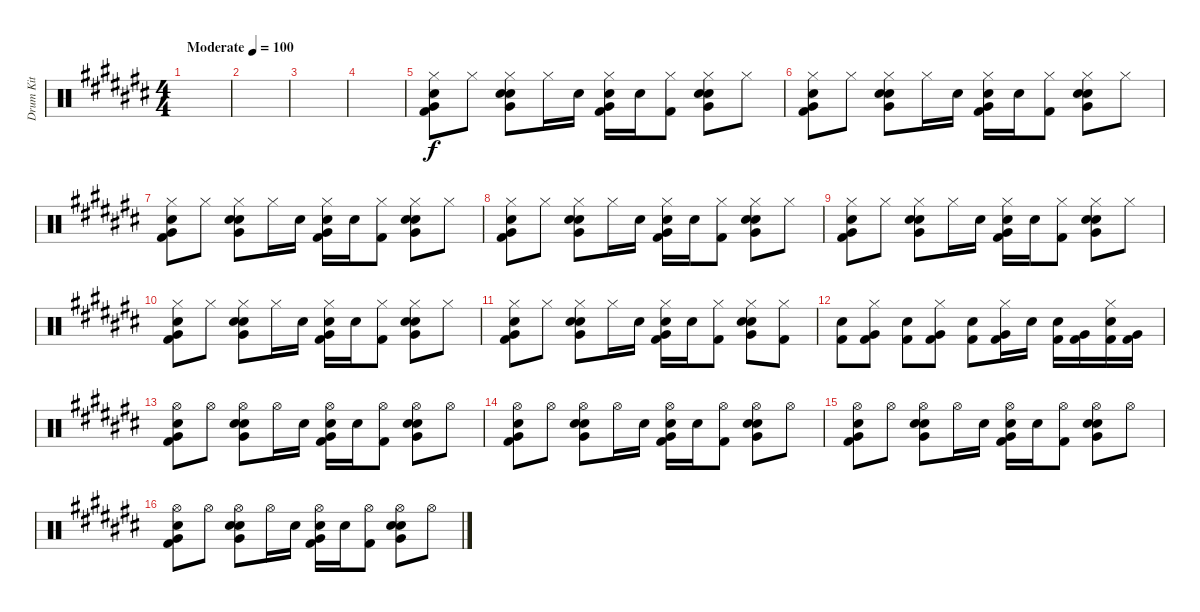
\track ("Drum Kit" "Drum Kit") {instrument percussion}
\staff {score}
\articulation defaults
\ts (4 4)
\tempo (100 "Moderate")
\clef neutral
\ks c#
|
|
|
|
("Hi-Hat (closed)" "Electric Snare (hit)" "Very Low Tom (hit)" "Kick (hit) 2").8 "Hi-Hat (closed)".8 ("Hi-Hat (closed)" "Electric Snare (hit)" "Very Low Tom (hit)" "Snare (hit) 2").8 "Hi-Hat (closed)".16 "Snare (hit) 2".16 ("Hi-Hat (closed)" "Electric Snare (hit)" "Very Low Tom (hit)" "Kick (hit) 2").16 "Snare (hit) 2".16 ("Hi-Hat (closed)" "Kick (hit) 2").8 ("Hi-Hat (closed)" "Electric Snare (hit)" "Very Low Tom (hit)" "Snare (hit) 2").8 "Hi-Hat (closed)".8 |
("Hi-Hat (closed)" "Electric Snare (hit)" "Very Low Tom (hit)" "Kick (hit) 2").8 "Hi-Hat (closed)".8 ("Hi-Hat (closed)" "Electric Snare (hit)" "Very Low Tom (hit)" "Snare (hit) 2").8 "Hi-Hat (closed)".16 "Snare (hit) 2".16 ("Hi-Hat (closed)" "Electric Snare (hit)" "Very Low Tom (hit)" "Kick (hit) 2").16 "Snare (hit) 2".16 ("Hi-Hat (closed)" "Kick (hit) 2").8 ("Hi-Hat (closed)" "Electric Snare (hit)" "Very Low Tom (hit)" "Snare (hit) 2").8 "Hi-Hat (closed)".8 |
("Hi-Hat (closed)" "Electric Snare (hit)" "Very Low Tom (hit)" "Kick (hit) 2").8 "Hi-Hat (closed)".8 ("Hi-Hat (closed)" "Electric Snare (hit)" "Very Low Tom (hit)" "Snare (hit) 2").8 "Hi-Hat (closed)".16 "Snare (hit) 2".16 ("Hi-Hat (closed)" "Electric Snare (hit)" "Very Low Tom (hit)" "Kick (hit) 2").16 "Snare (hit) 2".16 ("Hi-Hat (closed)" "Kick (hit) 2").8 ("Hi-Hat (closed)" "Electric Snare (hit)" "Very Low Tom (hit)" "Snare (hit) 2").8 "Hi-Hat (closed)".8 |
("Hi-Hat (closed)" "Electric Snare (hit)" "Very Low Tom (hit)" "Kick (hit) 2").8 "Hi-Hat (closed)".8 ("Hi-Hat (closed)" "Electric Snare (hit)" "Very Low Tom (hit)" "Snare (hit) 2").8 "Hi-Hat (closed)".16 "Snare (hit) 2".16 ("Hi-Hat (closed)" "Electric Snare (hit)" "Very Low Tom (hit)" "Kick (hit) 2").16 "Snare (hit) 2".16 ("Hi-Hat (closed)" "Kick (hit) 2").8 ("Hi-Hat (closed)" "Electric Snare (hit)" "Very Low Tom (hit)" "Snare (hit) 2").8 "Hi-Hat (closed)".8 |
("Hi-Hat (closed)" "Electric Snare (hit)" "Very Low Tom (hit)" "Kick (hit) 2").8 "Hi-Hat (closed)".8 ("Hi-Hat (closed)" "Electric Snare (hit)" "Very Low Tom (hit)" "Snare (hit) 2").8 "Hi-Hat (closed)".16 "Snare (hit) 2".16 ("Hi-Hat (closed)" "Electric Snare (hit)" "Very Low Tom (hit)" "Kick (hit) 2").16 "Snare (hit) 2".16 ("Hi-Hat (closed)" "Kick (hit) 2").8 ("Hi-Hat (closed)" "Electric Snare (hit)" "Very Low Tom (hit)" "Snare (hit) 2").8 "Hi-Hat (closed)".8 |
("Hi-Hat (closed)" "Electric Snare (hit)" "Very Low Tom (hit)" "Kick (hit) 2").8 "Hi-Hat (closed)".8 ("Hi-Hat (closed)" "Electric Snare (hit)" "Very Low Tom (hit)" "Snare (hit) 2").8 "Hi-Hat (closed)".16 "Snare (hit) 2".16 ("Hi-Hat (closed)" "Electric Snare (hit)" "Very Low Tom (hit)" "Kick (hit) 2").16 "Snare (hit) 2".16 ("Hi-Hat (closed)" "Kick (hit) 2").8 ("Hi-Hat (closed)" "Electric Snare (hit)" "Very Low Tom (hit)" "Snare (hit) 2").8 "Hi-Hat (closed)".8 |
("Hi-Hat (closed)" "Electric Snare (hit)" "Very Low Tom (hit)" "Kick (hit) 2").8 "Hi-Hat (closed)".8 ("Hi-Hat (closed)" "Electric Snare (hit)" "Very Low Tom (hit)" "Snare (hit) 2").8 "Hi-Hat (closed)".16 "Snare (hit) 2".16 ("Hi-Hat (closed)" "Electric Snare (hit)" "Very Low Tom (hit)" "Kick (hit) 2").16 "Snare (hit) 2".16 ("Hi-Hat (closed)" "Kick (hit) 2").8 ("Hi-Hat (closed)" "Electric Snare (hit)" "Very Low Tom (hit)" "Snare (hit) 2").8 ("Hi-Hat (closed)" "Kick (hit) 2").8 |
("Snare (hit) 2" "Kick (hit) 2").8 ("Hi-Hat (closed)" "Very Low Tom (hit)" "Kick (hit) 2").8 ("Snare (hit) 2" "Kick (hit) 2").8 ("Hi-Hat (closed)" "Very Low Tom (hit)" "Kick (hit) 2").8 ("Snare (hit) 2" "Kick (hit) 2").8 ("Hi-Hat (closed)" "Very Low Tom (hit)" "Kick (hit) 2").16 "Snare (hit) 2".16 ("Snare (hit) 2" "Kick (hit) 2").16 ("Very Low Tom (hit)" "Kick (hit) 2").16 ("Hi-Hat (closed)" "Snare (hit) 2" "Kick (hit) 2").16 ("Very Low Tom (hit)" "Kick (hit) 2").16 |
("Hi-Hat (open)" "Electric Snare (hit)" "Very Low Tom (hit)" "Kick (hit) 2").8 "Hi-Hat (open)".8 ("Hi-Hat (open)" "Electric Snare (hit)" "Very Low Tom (hit)" "Snare (hit) 2").8 "Hi-Hat (open)".16 "Snare (hit) 2".16 ("Hi-Hat (open)" "Electric Snare (hit)" "Very Low Tom (hit)" "Kick (hit) 2").16 "Snare (hit) 2".16 ("Hi-Hat (open)" "Kick (hit) 2").8 ("Hi-Hat (open)" "Electric Snare (hit)" "Very Low Tom (hit)" "Snare (hit) 2").8 "Hi-Hat (open)".8 |
("Hi-Hat (open)" "Electric Snare (hit)" "Very Low Tom (hit)" "Kick (hit) 2").8 "Hi-Hat (open)".8 ("Hi-Hat (open)" "Electric Snare (hit)" "Very Low Tom (hit)" "Snare (hit) 2").8 "Hi-Hat (open)".16 "Snare (hit) 2".16 ("Hi-Hat (open)" "Electric Snare (hit)" "Very Low Tom (hit)" "Kick (hit) 2").16 "Snare (hit) 2".16 ("Hi-Hat (open)" "Kick (hit) 2").8 ("Hi-Hat (open)" "Electric Snare (hit)" "Very Low Tom (hit)" "Snare (hit) 2").8 "Hi-Hat (open)".8 |
("Hi-Hat (open)" "Electric Snare (hit)" "Very Low Tom (hit)" "Kick (hit) 2").8 "Hi-Hat (open)".8 ("Hi-Hat (open)" "Electric Snare (hit)" "Very Low Tom (hit)" "Snare (hit) 2").8 "Hi-Hat (open)".16 "Snare (hit) 2".16 ("Hi-Hat (open)" "Electric Snare (hit)" "Very Low Tom (hit)" "Kick (hit) 2").16 "Snare (hit) 2".16 ("Hi-Hat (open)" "Kick (hit) 2").8 ("Hi-Hat (open)" "Electric Snare (hit)" "Very Low Tom (hit)" "Snare (hit) 2").8 "Hi-Hat (open)".8 |
("Hi-Hat (open)" "Electric Snare (hit)" "Very Low Tom (hit)" "Kick (hit) 2").8 "Hi-Hat (open)".8 ("Hi-Hat (open)" "Electric Snare (hit)" "Very Low Tom (hit)" "Snare (hit) 2").8 "Hi-Hat (open)".16 "Snare (hit) 2".16 ("Hi-Hat (open)" "Electric Snare (hit)" "Very Low Tom (hit)" "Kick (hit) 2").16 "Snare (hit) 2".16 ("Hi-Hat (open)" "Kick (hit) 2").8 ("Hi-Hat (open)" "Electric Snare (hit)" "Very Low Tom (hit)" "Snare (hit) 2").8 "Hi-Hat (open)".8
